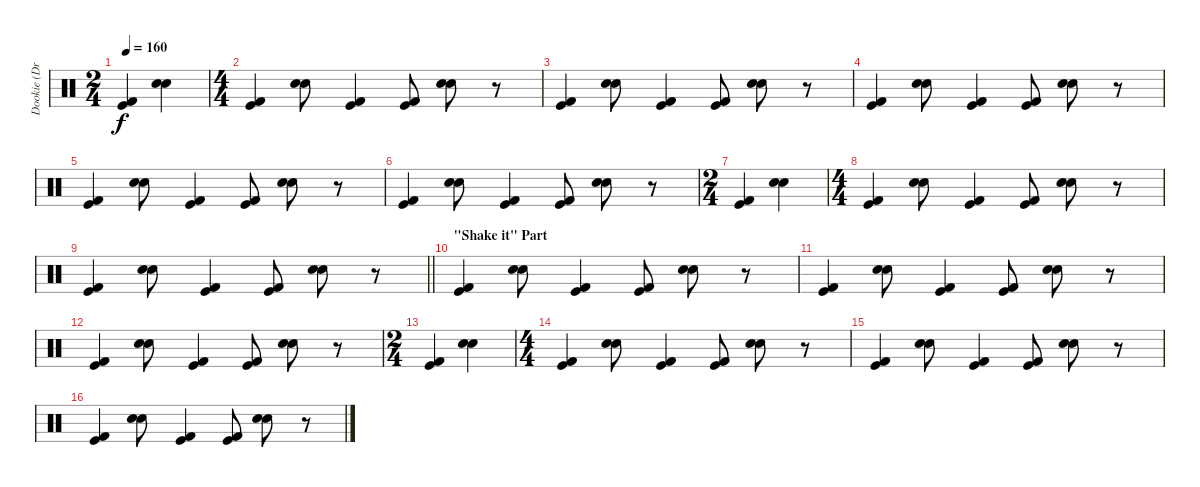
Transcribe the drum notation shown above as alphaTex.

\track ("Dookie (Drums)" "Dookie (Dr") {instrument percussion}
\staff {score}
\articulation defaults
\ts (2 4)
\tempo 160
\clef neutral
\ks c
("Kick (hit) 2" "Kick (hit)").4{dy f} ("Electric Snare (hit)" "Electric Snare (hit)").4 |
\ts (4 4)
("Kick (hit) 2" "Kick (hit)").4 ("Electric Snare (hit)" "Electric Snare (hit)").8 ("Kick (hit) 2" "Kick (hit)").4 ("Kick (hit) 2" "Kick (hit)").8 ("Electric Snare (hit)" "Electric Snare (hit)").8 r.8 |
("Kick (hit) 2" "Kick (hit)").4 ("Electric Snare (hit)" "Electric Snare (hit)").8 ("Kick (hit) 2" "Kick (hit)").4 ("Kick (hit) 2" "Kick (hit)").8 ("Electric Snare (hit)" "Electric Snare (hit)").8 r.8 |
("Kick (hit) 2" "Kick (hit)").4 ("Electric Snare (hit)" "Electric Snare (hit)").8 ("Kick (hit) 2" "Kick (hit)").4 ("Kick (hit) 2" "Kick (hit)").8 ("Electric Snare (hit)" "Electric Snare (hit)").8 r.8 |
("Kick (hit) 2" "Kick (hit)").4 ("Electric Snare (hit)" "Electric Snare (hit)").8 ("Kick (hit) 2" "Kick (hit)").4 ("Kick (hit) 2" "Kick (hit)").8 ("Electric Snare (hit)" "Electric Snare (hit)").8 r.8 |
("Kick (hit) 2" "Kick (hit)").4 ("Electric Snare (hit)" "Electric Snare (hit)").8 ("Kick (hit) 2" "Kick (hit)").4 ("Kick (hit) 2" "Kick (hit)").8 ("Electric Snare (hit)" "Electric Snare (hit)").8 r.8 |
\ts (2 4)
("Kick (hit) 2" "Kick (hit)").4 ("Electric Snare (hit)" "Electric Snare (hit)").4 |
\ts (4 4)
("Kick (hit) 2" "Kick (hit)").4 ("Electric Snare (hit)" "Electric Snare (hit)").8 ("Kick (hit) 2" "Kick (hit)").4 ("Kick (hit) 2" "Kick (hit)").8 ("Electric Snare (hit)" "Electric Snare (hit)").8 r.8 |
\barLineRight lightlight
("Kick (hit) 2" "Kick (hit)").4 ("Electric Snare (hit)" "Electric Snare (hit)").8 ("Kick (hit) 2" "Kick (hit)").4 ("Kick (hit) 2" "Kick (hit)").8 ("Electric Snare (hit)" "Electric Snare (hit)").8 r.8 |
\section ("" "\"Shake it\" Part")
("Kick (hit) 2" "Kick (hit)").4 ("Electric Snare (hit)" "Electric Snare (hit)").8 ("Kick (hit) 2" "Kick (hit)").4 ("Kick (hit) 2" "Kick (hit)").8 ("Electric Snare (hit)" "Electric Snare (hit)").8 r.8 |
("Kick (hit) 2" "Kick (hit)").4 ("Electric Snare (hit)" "Electric Snare (hit)").8 ("Kick (hit) 2" "Kick (hit)").4 ("Kick (hit) 2" "Kick (hit)").8 ("Electric Snare (hit)" "Electric Snare (hit)").8 r.8 |
("Kick (hit) 2" "Kick (hit)").4 ("Electric Snare (hit)" "Electric Snare (hit)").8 ("Kick (hit) 2" "Kick (hit)").4 ("Kick (hit) 2" "Kick (hit)").8 ("Electric Snare (hit)" "Electric Snare (hit)").8 r.8 |
\ts (2 4)
("Kick (hit) 2" "Kick (hit)").4 ("Electric Snare (hit)" "Electric Snare (hit)").4 |
\ts (4 4)
("Kick (hit) 2" "Kick (hit)").4 ("Electric Snare (hit)" "Electric Snare (hit)").8 ("Kick (hit) 2" "Kick (hit)").4 ("Kick (hit) 2" "Kick (hit)").8 ("Electric Snare (hit)" "Electric Snare (hit)").8 r.8 |
("Kick (hit) 2" "Kick (hit)").4 ("Electric Snare (hit)" "Electric Snare (hit)").8 ("Kick (hit) 2" "Kick (hit)").4 ("Kick (hit) 2" "Kick (hit)").8 ("Electric Snare (hit)" "Electric Snare (hit)").8 r.8 |
("Kick (hit) 2" "Kick (hit)").4 ("Electric Snare (hit)" "Electric Snare (hit)").8 ("Kick (hit) 2" "Kick (hit)").4 ("Kick (hit) 2" "Kick (hit)").8 ("Electric Snare (hit)" "Electric Snare (hit)").8 r.8
